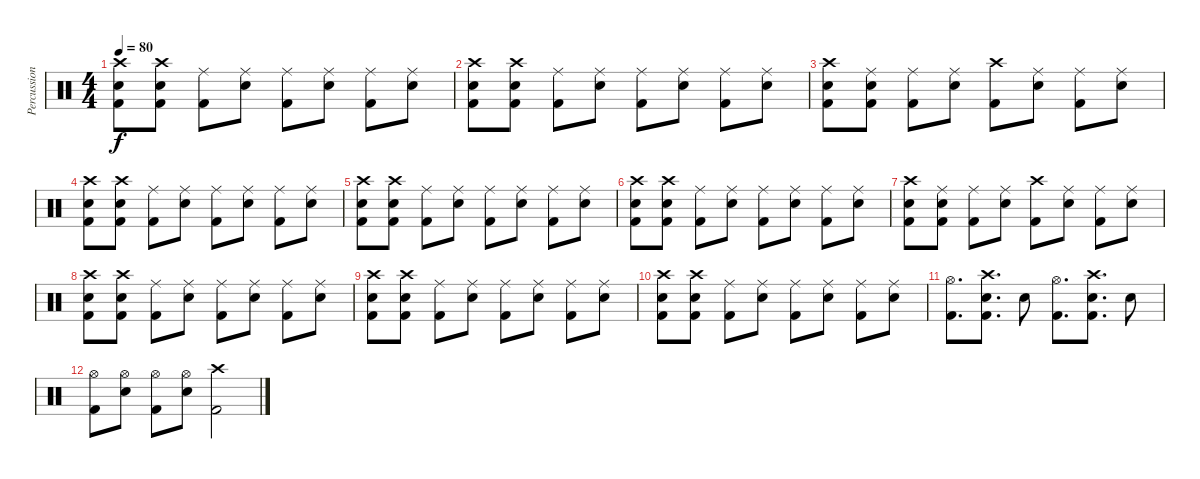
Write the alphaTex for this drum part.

\track ("Percussion" "Percussion") {instrument percussion}
\staff {score}
\articulation defaults
\ts (4 4)
\tempo 80
\clef neutral
\ks c
("Crash high (hit)" "Snare (hit) 2" "Kick (hit) 2").8{dy f} ("Crash high (hit)" "Snare (hit) 2" "Kick (hit) 2").8 ("Ride (middle)" "Kick (hit) 2").8 ("Ride (middle)" "Snare (hit) 2").8 ("Ride (middle)" "Kick (hit) 2").8 ("Ride (middle)" "Snare (hit) 2").8 ("Ride (middle)" "Kick (hit) 2").8 ("Ride (middle)" "Snare (hit) 2").8 |
("Crash high (hit)" "Snare (hit) 2" "Kick (hit) 2").8 ("Crash high (hit)" "Snare (hit) 2" "Kick (hit) 2").8 ("Ride (middle)" "Kick (hit) 2").8 ("Ride (middle)" "Snare (hit) 2").8 ("Ride (middle)" "Kick (hit) 2").8 ("Ride (middle)" "Snare (hit) 2").8 ("Ride (middle)" "Kick (hit) 2").8 ("Ride (middle)" "Snare (hit) 2").8 |
("Crash high (hit)" "Snare (hit) 2" "Kick (hit) 2").8 ("Ride (middle)" "Snare (hit) 2" "Kick (hit) 2").8 ("Ride (middle)" "Kick (hit) 2").8 ("Ride (middle)" "Snare (hit) 2").8 ("Crash high (hit)" "Kick (hit) 2").8 ("Ride (middle)" "Snare (hit) 2").8 ("Ride (middle)" "Kick (hit) 2").8 ("Ride (middle)" "Snare (hit) 2").8 |
("Crash high (hit)" "Snare (hit) 2" "Kick (hit) 2").8 ("Crash high (hit)" "Snare (hit) 2" "Kick (hit) 2").8 ("Ride (middle)" "Kick (hit) 2").8 ("Ride (middle)" "Snare (hit) 2").8 ("Ride (middle)" "Kick (hit) 2").8 ("Ride (middle)" "Snare (hit) 2").8 ("Ride (middle)" "Kick (hit) 2").8 ("Ride (middle)" "Snare (hit) 2").8 |
("Crash high (hit)" "Snare (hit) 2" "Kick (hit) 2").8 ("Crash high (hit)" "Snare (hit) 2" "Kick (hit) 2").8 ("Ride (middle)" "Kick (hit) 2").8 ("Ride (middle)" "Snare (hit) 2").8 ("Ride (middle)" "Kick (hit) 2").8 ("Ride (middle)" "Snare (hit) 2").8 ("Ride (middle)" "Kick (hit) 2").8 ("Ride (middle)" "Snare (hit) 2").8 |
("Crash high (hit)" "Snare (hit) 2" "Kick (hit) 2").8 ("Crash high (hit)" "Snare (hit) 2" "Kick (hit) 2").8 ("Ride (middle)" "Kick (hit) 2").8 ("Ride (middle)" "Snare (hit) 2").8 ("Ride (middle)" "Kick (hit) 2").8 ("Ride (middle)" "Snare (hit) 2").8 ("Ride (middle)" "Kick (hit) 2").8 ("Ride (middle)" "Snare (hit) 2").8 |
("Crash high (hit)" "Snare (hit) 2" "Kick (hit) 2").8 ("Ride (middle)" "Snare (hit) 2" "Kick (hit) 2").8 ("Ride (middle)" "Kick (hit) 2").8 ("Ride (middle)" "Snare (hit) 2").8 ("Crash high (hit)" "Kick (hit) 2").8 ("Ride (middle)" "Snare (hit) 2").8 ("Ride (middle)" "Kick (hit) 2").8 ("Ride (middle)" "Snare (hit) 2").8 |
("Crash high (hit)" "Snare (hit) 2" "Kick (hit) 2").8 ("Crash high (hit)" "Snare (hit) 2" "Kick (hit) 2").8 ("Ride (middle)" "Kick (hit) 2").8 ("Ride (middle)" "Snare (hit) 2").8 ("Ride (middle)" "Kick (hit) 2").8 ("Ride (middle)" "Snare (hit) 2").8 ("Ride (middle)" "Kick (hit) 2").8 ("Ride (middle)" "Snare (hit) 2").8 |
("Crash high (hit)" "Snare (hit) 2" "Kick (hit) 2").8 ("Crash high (hit)" "Snare (hit) 2" "Kick (hit) 2").8 ("Ride (middle)" "Kick (hit) 2").8 ("Ride (middle)" "Snare (hit) 2").8 ("Ride (middle)" "Kick (hit) 2").8 ("Ride (middle)" "Snare (hit) 2").8 ("Ride (middle)" "Kick (hit) 2").8 ("Ride (middle)" "Snare (hit) 2").8 |
("Crash high (hit)" "Snare (hit) 2" "Kick (hit) 2").8 ("Crash high (hit)" "Snare (hit) 2" "Kick (hit) 2").8 ("Ride (middle)" "Kick (hit) 2").8 ("Ride (middle)" "Snare (hit) 2").8 ("Ride (middle)" "Kick (hit) 2").8 ("Ride (middle)" "Snare (hit) 2").8 ("Ride (middle)" "Kick (hit) 2").8 ("Ride (middle)" "Snare (hit) 2").8 |
("Hi-Hat (open)" "Kick (hit) 2").8{d} ("Crash high (hit)" "Snare (hit) 2" "Kick (hit) 2").8{d} "Snare (hit) 2".8 ("Hi-Hat (open)" "Kick (hit) 2").8{d} ("Crash high (hit)" "Snare (hit) 2" "Kick (hit) 2").8{d} "Snare (hit) 2".8 |
("Hi-Hat (open)" "Kick (hit) 2").8 ("Hi-Hat (open)" "Snare (hit) 2").8 ("Hi-Hat (open)" "Kick (hit) 2").8 ("Hi-Hat (open)" "Snare (hit) 2").8 ("Crash high (hit)" "Kick (hit) 2").2
